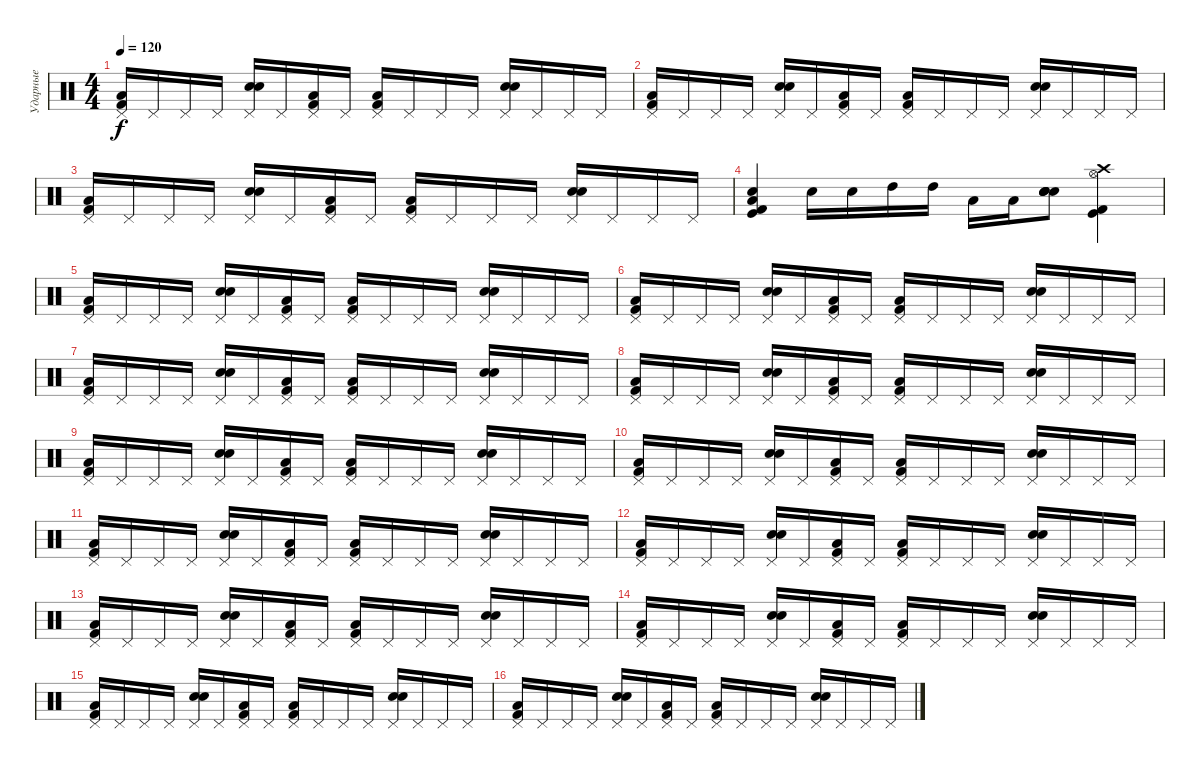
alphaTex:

\track ("Ударные" "Ударные") {instrument percussion}
\staff {score}
\articulation defaults
\ts (4 4)
\tempo 120
\clef neutral
\ks c
("Kick (hit) 2" "Low Floor Tom (hit)" "Pedal Hi-Hat (hit)").16{dy f} "Pedal Hi-Hat (hit)".16 "Pedal Hi-Hat (hit)".16 "Pedal Hi-Hat (hit)".16 ("Electric Snare (hit)" "Electric Snare (hit)" "Pedal Hi-Hat (hit)").16 "Pedal Hi-Hat (hit)".16 ("Kick (hit) 2" "Low Floor Tom (hit)" "Pedal Hi-Hat (hit)").16 "Pedal Hi-Hat (hit)".16 ("Kick (hit) 2" "Low Floor Tom (hit)" "Pedal Hi-Hat (hit)").16 "Pedal Hi-Hat (hit)".16 "Pedal Hi-Hat (hit)".16 "Pedal Hi-Hat (hit)".16 ("Electric Snare (hit)" "Electric Snare (hit)" "Pedal Hi-Hat (hit)").16 "Pedal Hi-Hat (hit)".16 "Pedal Hi-Hat (hit)".16 "Pedal Hi-Hat (hit)".16 |
("Kick (hit) 2" "Low Floor Tom (hit)" "Pedal Hi-Hat (hit)").16 "Pedal Hi-Hat (hit)".16 "Pedal Hi-Hat (hit)".16 "Pedal Hi-Hat (hit)".16 ("Electric Snare (hit)" "Electric Snare (hit)" "Pedal Hi-Hat (hit)").16 "Pedal Hi-Hat (hit)".16 ("Kick (hit) 2" "Low Floor Tom (hit)" "Pedal Hi-Hat (hit)").16 "Pedal Hi-Hat (hit)".16 ("Kick (hit) 2" "Low Floor Tom (hit)" "Pedal Hi-Hat (hit)").16 "Pedal Hi-Hat (hit)".16 "Pedal Hi-Hat (hit)".16 "Pedal Hi-Hat (hit)".16 ("Electric Snare (hit)" "Electric Snare (hit)" "Pedal Hi-Hat (hit)").16 "Pedal Hi-Hat (hit)".16 "Pedal Hi-Hat (hit)".16 "Pedal Hi-Hat (hit)".16 |
("Kick (hit) 2" "Low Floor Tom (hit)" "Pedal Hi-Hat (hit)").16 "Pedal Hi-Hat (hit)".16 "Pedal Hi-Hat (hit)".16 "Pedal Hi-Hat (hit)".16 ("Electric Snare (hit)" "Electric Snare (hit)" "Pedal Hi-Hat (hit)").16 "Pedal Hi-Hat (hit)".16 ("Kick (hit) 2" "Low Floor Tom (hit)" "Pedal Hi-Hat (hit)").16 "Pedal Hi-Hat (hit)".16 ("Kick (hit) 2" "Low Floor Tom (hit)" "Pedal Hi-Hat (hit)").16 "Pedal Hi-Hat (hit)".16 "Pedal Hi-Hat (hit)".16 "Pedal Hi-Hat (hit)".16 ("Electric Snare (hit)" "Electric Snare (hit)" "Pedal Hi-Hat (hit)").16 "Pedal Hi-Hat (hit)".16 "Pedal Hi-Hat (hit)".16 "Pedal Hi-Hat (hit)".16 |
("Low Floor Tom (hit)" "Kick (hit)" "Snare (hit) 2" "Kick (hit) 2").4 "Electric Snare (hit)".16 "Electric Snare (hit)".16 "High Tom (hit)".16 "High Tom (hit)".16 "Low Tom (hit)".16 "Low Tom (hit)".16 ("Snare (hit) 2" "Snare (hit) 2" "Snare (hit) 2" "Snare (hit) 2").8 ("Hi-Hat (open)" "Crash high (hit)" "Kick (hit)" "Kick (hit) 2").4 |
("Kick (hit) 2" "Low Floor Tom (hit)" "Pedal Hi-Hat (hit)").16 "Pedal Hi-Hat (hit)".16 "Pedal Hi-Hat (hit)".16 "Pedal Hi-Hat (hit)".16 ("Electric Snare (hit)" "Electric Snare (hit)" "Pedal Hi-Hat (hit)").16 "Pedal Hi-Hat (hit)".16 ("Kick (hit) 2" "Low Floor Tom (hit)" "Pedal Hi-Hat (hit)").16 "Pedal Hi-Hat (hit)".16 ("Kick (hit) 2" "Low Floor Tom (hit)" "Pedal Hi-Hat (hit)").16 "Pedal Hi-Hat (hit)".16 "Pedal Hi-Hat (hit)".16 "Pedal Hi-Hat (hit)".16 ("Electric Snare (hit)" "Electric Snare (hit)" "Pedal Hi-Hat (hit)").16 "Pedal Hi-Hat (hit)".16 "Pedal Hi-Hat (hit)".16 "Pedal Hi-Hat (hit)".16 |
("Kick (hit) 2" "Low Floor Tom (hit)" "Pedal Hi-Hat (hit)").16 "Pedal Hi-Hat (hit)".16 "Pedal Hi-Hat (hit)".16 "Pedal Hi-Hat (hit)".16 ("Electric Snare (hit)" "Electric Snare (hit)" "Pedal Hi-Hat (hit)").16 "Pedal Hi-Hat (hit)".16 ("Kick (hit) 2" "Low Floor Tom (hit)" "Pedal Hi-Hat (hit)").16 "Pedal Hi-Hat (hit)".16 ("Kick (hit) 2" "Low Floor Tom (hit)" "Pedal Hi-Hat (hit)").16 "Pedal Hi-Hat (hit)".16 "Pedal Hi-Hat (hit)".16 "Pedal Hi-Hat (hit)".16 ("Electric Snare (hit)" "Electric Snare (hit)" "Pedal Hi-Hat (hit)").16 "Pedal Hi-Hat (hit)".16 "Pedal Hi-Hat (hit)".16 "Pedal Hi-Hat (hit)".16 |
("Kick (hit) 2" "Low Floor Tom (hit)" "Pedal Hi-Hat (hit)").16 "Pedal Hi-Hat (hit)".16 "Pedal Hi-Hat (hit)".16 "Pedal Hi-Hat (hit)".16 ("Electric Snare (hit)" "Electric Snare (hit)" "Pedal Hi-Hat (hit)").16 "Pedal Hi-Hat (hit)".16 ("Kick (hit) 2" "Low Floor Tom (hit)" "Pedal Hi-Hat (hit)").16 "Pedal Hi-Hat (hit)".16 ("Kick (hit) 2" "Low Floor Tom (hit)" "Pedal Hi-Hat (hit)").16 "Pedal Hi-Hat (hit)".16 "Pedal Hi-Hat (hit)".16 "Pedal Hi-Hat (hit)".16 ("Electric Snare (hit)" "Electric Snare (hit)" "Pedal Hi-Hat (hit)").16 "Pedal Hi-Hat (hit)".16 "Pedal Hi-Hat (hit)".16 "Pedal Hi-Hat (hit)".16 |
("Kick (hit) 2" "Low Floor Tom (hit)" "Pedal Hi-Hat (hit)").16 "Pedal Hi-Hat (hit)".16 "Pedal Hi-Hat (hit)".16 "Pedal Hi-Hat (hit)".16 ("Electric Snare (hit)" "Electric Snare (hit)" "Pedal Hi-Hat (hit)").16 "Pedal Hi-Hat (hit)".16 ("Kick (hit) 2" "Low Floor Tom (hit)" "Pedal Hi-Hat (hit)").16 "Pedal Hi-Hat (hit)".16 ("Kick (hit) 2" "Low Floor Tom (hit)" "Pedal Hi-Hat (hit)").16 "Pedal Hi-Hat (hit)".16 "Pedal Hi-Hat (hit)".16 "Pedal Hi-Hat (hit)".16 ("Electric Snare (hit)" "Electric Snare (hit)" "Pedal Hi-Hat (hit)").16 "Pedal Hi-Hat (hit)".16 "Pedal Hi-Hat (hit)".16 "Pedal Hi-Hat (hit)".16 |
("Kick (hit) 2" "Low Floor Tom (hit)" "Pedal Hi-Hat (hit)").16 "Pedal Hi-Hat (hit)".16 "Pedal Hi-Hat (hit)".16 "Pedal Hi-Hat (hit)".16 ("Electric Snare (hit)" "Electric Snare (hit)" "Pedal Hi-Hat (hit)").16 "Pedal Hi-Hat (hit)".16 ("Kick (hit) 2" "Low Floor Tom (hit)" "Pedal Hi-Hat (hit)").16 "Pedal Hi-Hat (hit)".16 ("Kick (hit) 2" "Low Floor Tom (hit)" "Pedal Hi-Hat (hit)").16 "Pedal Hi-Hat (hit)".16 "Pedal Hi-Hat (hit)".16 "Pedal Hi-Hat (hit)".16 ("Electric Snare (hit)" "Electric Snare (hit)" "Pedal Hi-Hat (hit)").16 "Pedal Hi-Hat (hit)".16 "Pedal Hi-Hat (hit)".16 "Pedal Hi-Hat (hit)".16 |
("Kick (hit) 2" "Low Floor Tom (hit)" "Pedal Hi-Hat (hit)").16 "Pedal Hi-Hat (hit)".16 "Pedal Hi-Hat (hit)".16 "Pedal Hi-Hat (hit)".16 ("Electric Snare (hit)" "Electric Snare (hit)" "Pedal Hi-Hat (hit)").16 "Pedal Hi-Hat (hit)".16 ("Kick (hit) 2" "Low Floor Tom (hit)" "Pedal Hi-Hat (hit)").16 "Pedal Hi-Hat (hit)".16 ("Kick (hit) 2" "Low Floor Tom (hit)" "Pedal Hi-Hat (hit)").16 "Pedal Hi-Hat (hit)".16 "Pedal Hi-Hat (hit)".16 "Pedal Hi-Hat (hit)".16 ("Electric Snare (hit)" "Electric Snare (hit)" "Pedal Hi-Hat (hit)").16 "Pedal Hi-Hat (hit)".16 "Pedal Hi-Hat (hit)".16 "Pedal Hi-Hat (hit)".16 |
("Kick (hit) 2" "Low Floor Tom (hit)" "Pedal Hi-Hat (hit)").16 "Pedal Hi-Hat (hit)".16 "Pedal Hi-Hat (hit)".16 "Pedal Hi-Hat (hit)".16 ("Electric Snare (hit)" "Electric Snare (hit)" "Pedal Hi-Hat (hit)").16 "Pedal Hi-Hat (hit)".16 ("Kick (hit) 2" "Low Floor Tom (hit)" "Pedal Hi-Hat (hit)").16 "Pedal Hi-Hat (hit)".16 ("Kick (hit) 2" "Low Floor Tom (hit)" "Pedal Hi-Hat (hit)").16 "Pedal Hi-Hat (hit)".16 "Pedal Hi-Hat (hit)".16 "Pedal Hi-Hat (hit)".16 ("Electric Snare (hit)" "Electric Snare (hit)" "Pedal Hi-Hat (hit)").16 "Pedal Hi-Hat (hit)".16 "Pedal Hi-Hat (hit)".16 "Pedal Hi-Hat (hit)".16 |
("Kick (hit) 2" "Low Floor Tom (hit)" "Pedal Hi-Hat (hit)").16 "Pedal Hi-Hat (hit)".16 "Pedal Hi-Hat (hit)".16 "Pedal Hi-Hat (hit)".16 ("Electric Snare (hit)" "Electric Snare (hit)" "Pedal Hi-Hat (hit)").16 "Pedal Hi-Hat (hit)".16 ("Kick (hit) 2" "Low Floor Tom (hit)" "Pedal Hi-Hat (hit)").16 "Pedal Hi-Hat (hit)".16 ("Kick (hit) 2" "Low Floor Tom (hit)" "Pedal Hi-Hat (hit)").16 "Pedal Hi-Hat (hit)".16 "Pedal Hi-Hat (hit)".16 "Pedal Hi-Hat (hit)".16 ("Electric Snare (hit)" "Electric Snare (hit)" "Pedal Hi-Hat (hit)").16 "Pedal Hi-Hat (hit)".16 "Pedal Hi-Hat (hit)".16 "Pedal Hi-Hat (hit)".16 |
("Kick (hit) 2" "Low Floor Tom (hit)" "Pedal Hi-Hat (hit)").16 "Pedal Hi-Hat (hit)".16 "Pedal Hi-Hat (hit)".16 "Pedal Hi-Hat (hit)".16 ("Electric Snare (hit)" "Electric Snare (hit)" "Pedal Hi-Hat (hit)").16 "Pedal Hi-Hat (hit)".16 ("Kick (hit) 2" "Low Floor Tom (hit)" "Pedal Hi-Hat (hit)").16 "Pedal Hi-Hat (hit)".16 ("Kick (hit) 2" "Low Floor Tom (hit)" "Pedal Hi-Hat (hit)").16 "Pedal Hi-Hat (hit)".16 "Pedal Hi-Hat (hit)".16 "Pedal Hi-Hat (hit)".16 ("Electric Snare (hit)" "Electric Snare (hit)" "Pedal Hi-Hat (hit)").16 "Pedal Hi-Hat (hit)".16 "Pedal Hi-Hat (hit)".16 "Pedal Hi-Hat (hit)".16 |
("Kick (hit) 2" "Low Floor Tom (hit)" "Pedal Hi-Hat (hit)").16 "Pedal Hi-Hat (hit)".16 "Pedal Hi-Hat (hit)".16 "Pedal Hi-Hat (hit)".16 ("Electric Snare (hit)" "Electric Snare (hit)" "Pedal Hi-Hat (hit)").16 "Pedal Hi-Hat (hit)".16 ("Kick (hit) 2" "Low Floor Tom (hit)" "Pedal Hi-Hat (hit)").16 "Pedal Hi-Hat (hit)".16 ("Kick (hit) 2" "Low Floor Tom (hit)" "Pedal Hi-Hat (hit)").16 "Pedal Hi-Hat (hit)".16 "Pedal Hi-Hat (hit)".16 "Pedal Hi-Hat (hit)".16 ("Electric Snare (hit)" "Electric Snare (hit)" "Pedal Hi-Hat (hit)").16 "Pedal Hi-Hat (hit)".16 "Pedal Hi-Hat (hit)".16 "Pedal Hi-Hat (hit)".16 |
("Kick (hit) 2" "Low Floor Tom (hit)" "Pedal Hi-Hat (hit)").16 "Pedal Hi-Hat (hit)".16 "Pedal Hi-Hat (hit)".16 "Pedal Hi-Hat (hit)".16 ("Electric Snare (hit)" "Electric Snare (hit)" "Pedal Hi-Hat (hit)").16 "Pedal Hi-Hat (hit)".16 ("Kick (hit) 2" "Low Floor Tom (hit)" "Pedal Hi-Hat (hit)").16 "Pedal Hi-Hat (hit)".16 ("Kick (hit) 2" "Low Floor Tom (hit)" "Pedal Hi-Hat (hit)").16 "Pedal Hi-Hat (hit)".16 "Pedal Hi-Hat (hit)".16 "Pedal Hi-Hat (hit)".16 ("Electric Snare (hit)" "Electric Snare (hit)" "Pedal Hi-Hat (hit)").16 "Pedal Hi-Hat (hit)".16 "Pedal Hi-Hat (hit)".16 "Pedal Hi-Hat (hit)".16 |
("Kick (hit) 2" "Low Floor Tom (hit)" "Pedal Hi-Hat (hit)").16 "Pedal Hi-Hat (hit)".16 "Pedal Hi-Hat (hit)".16 "Pedal Hi-Hat (hit)".16 ("Electric Snare (hit)" "Electric Snare (hit)" "Pedal Hi-Hat (hit)").16 "Pedal Hi-Hat (hit)".16 ("Kick (hit) 2" "Low Floor Tom (hit)" "Pedal Hi-Hat (hit)").16 "Pedal Hi-Hat (hit)".16 ("Kick (hit) 2" "Low Floor Tom (hit)" "Pedal Hi-Hat (hit)").16 "Pedal Hi-Hat (hit)".16 "Pedal Hi-Hat (hit)".16 "Pedal Hi-Hat (hit)".16 ("Electric Snare (hit)" "Electric Snare (hit)" "Pedal Hi-Hat (hit)").16 "Pedal Hi-Hat (hit)".16 "Pedal Hi-Hat (hit)".16 "Pedal Hi-Hat (hit)".16
